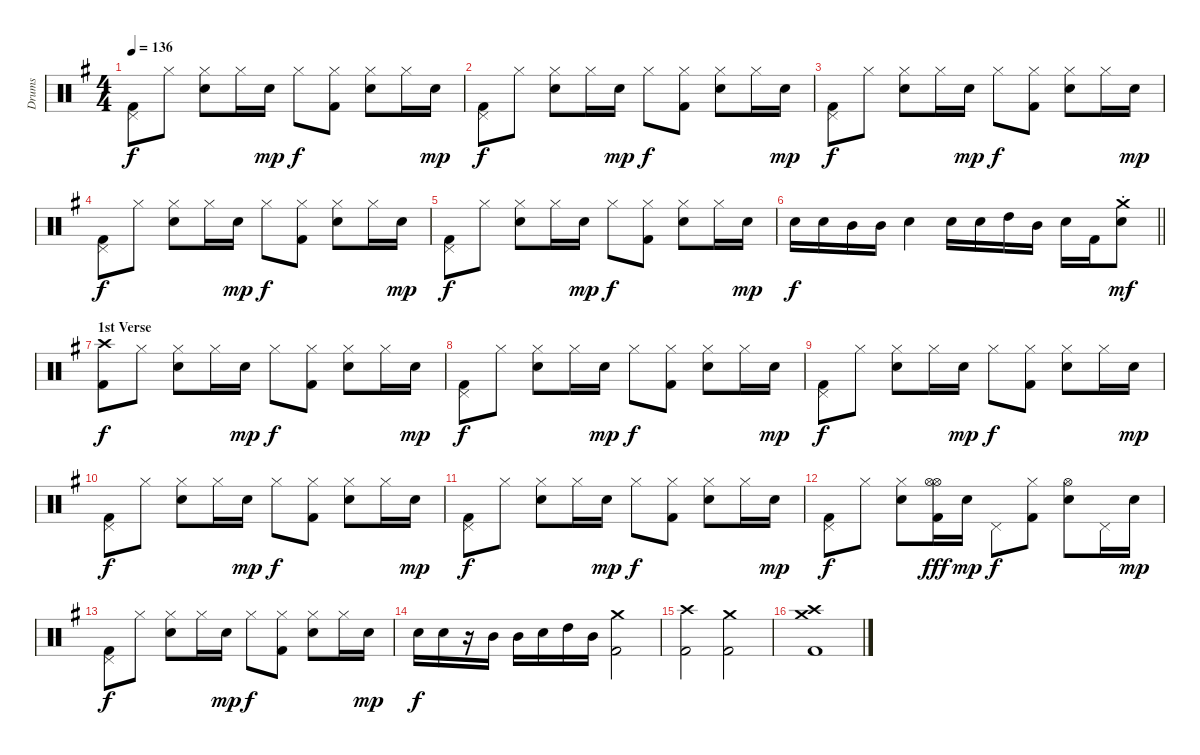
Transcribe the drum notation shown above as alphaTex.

\track ("Drums" "Drums") {instrument percussion}
\staff {score}
\articulation defaults
\ts (4 4)
\tempo 136
\clef neutral
\ks g
("Kick (hit) 2" "Pedal Hi-Hat (hit)").8{dy f} "Hi-Hat (closed)".8 ("Snare (hit) 2" "Hi-Hat (closed)").8 "Hi-Hat (closed)".16 "Snare (hit) 2".16{dy mp} "Hi-Hat (closed)".8{dy f} ("Kick (hit) 2" "Hi-Hat (closed)").8 ("Snare (hit) 2" "Hi-Hat (closed)").8 "Hi-Hat (closed)".16 "Snare (hit) 2".16{dy mp} |
("Kick (hit) 2" "Pedal Hi-Hat (hit)").8{dy f} "Hi-Hat (closed)".8 ("Snare (hit) 2" "Hi-Hat (closed)").8 "Hi-Hat (closed)".16 "Snare (hit) 2".16{dy mp} "Hi-Hat (closed)".8{dy f} ("Kick (hit) 2" "Hi-Hat (closed)").8 ("Snare (hit) 2" "Hi-Hat (closed)").8 "Hi-Hat (closed)".16 "Snare (hit) 2".16{dy mp} |
("Kick (hit) 2" "Pedal Hi-Hat (hit)").8{dy f} "Hi-Hat (closed)".8 ("Snare (hit) 2" "Hi-Hat (closed)").8 "Hi-Hat (closed)".16 "Snare (hit) 2".16{dy mp} "Hi-Hat (closed)".8{dy f} ("Kick (hit) 2" "Hi-Hat (closed)").8 ("Snare (hit) 2" "Hi-Hat (closed)").8 "Hi-Hat (closed)".16 "Snare (hit) 2".16{dy mp} |
("Kick (hit) 2" "Pedal Hi-Hat (hit)").8{dy f} "Hi-Hat (closed)".8 ("Snare (hit) 2" "Hi-Hat (closed)").8 "Hi-Hat (closed)".16 "Snare (hit) 2".16{dy mp} "Hi-Hat (closed)".8{dy f} ("Kick (hit) 2" "Hi-Hat (closed)").8 ("Snare (hit) 2" "Hi-Hat (closed)").8 "Hi-Hat (closed)".16 "Snare (hit) 2".16{dy mp} |
("Kick (hit) 2" "Pedal Hi-Hat (hit)").8{dy f} "Hi-Hat (closed)".8 ("Snare (hit) 2" "Hi-Hat (closed)").8 "Hi-Hat (closed)".16 "Snare (hit) 2".16{dy mp} "Hi-Hat (closed)".8{dy f} ("Kick (hit) 2" "Hi-Hat (closed)").8 ("Snare (hit) 2" "Hi-Hat (closed)").8 "Hi-Hat (closed)".16 "Snare (hit) 2".16{dy mp} |
\barLineRight lightlight "Snare (hit) 2".16{dy f} "Snare (hit) 2".16 "Mid Tom (hit)".16 "Mid Tom (hit)".16 "Snare (hit) 2".4 "Snare (hit) 2".16 "Snare (hit) 2".16 "High Tom (hit)".16 "Mid Tom (hit)".16 "Snare (hit) 2".16 "Kick (hit) 2".16
("Snare (hit) 2" "Crash medium (hit)"{st}).8{dy mf} |
\section ("" "1st Verse")
("Kick (hit) 2" "Crash high (hit)").8{dy f} "Hi-Hat (closed)".8 ("Snare (hit) 2" "Hi-Hat (closed)").8 "Hi-Hat (closed)".16 "Snare (hit) 2".16{dy mp} "Hi-Hat (closed)".8{dy f} ("Kick (hit) 2" "Hi-Hat (closed)").8 ("Snare (hit) 2" "Hi-Hat (closed)").8 "Hi-Hat (closed)".16 "Snare (hit) 2".16{dy mp} |
("Kick (hit) 2" "Pedal Hi-Hat (hit)").8{dy f} "Hi-Hat (closed)".8 ("Snare (hit) 2" "Hi-Hat (closed)").8 "Hi-Hat (closed)".16 "Snare (hit) 2".16{dy mp} "Hi-Hat (closed)".8{dy f} ("Kick (hit) 2" "Hi-Hat (closed)").8 ("Snare (hit) 2" "Hi-Hat (closed)").8 "Hi-Hat (closed)".16 "Snare (hit) 2".16{dy mp} |
("Kick (hit) 2" "Pedal Hi-Hat (hit)").8{dy f} "Hi-Hat (closed)".8 ("Snare (hit) 2" "Hi-Hat (closed)").8 "Hi-Hat (closed)".16 "Snare (hit) 2".16{dy mp} "Hi-Hat (closed)".8{dy f} ("Kick (hit) 2" "Hi-Hat (closed)").8 ("Snare (hit) 2" "Hi-Hat (closed)").8 "Hi-Hat (closed)".16 "Snare (hit) 2".16{dy mp} |
("Kick (hit) 2" "Pedal Hi-Hat (hit)").8{dy f} "Hi-Hat (closed)".8 ("Snare (hit) 2" "Hi-Hat (closed)").8 "Hi-Hat (closed)".16 "Snare (hit) 2".16{dy mp} "Hi-Hat (closed)".8{dy f} ("Kick (hit) 2" "Hi-Hat (closed)").8 ("Snare (hit) 2" "Hi-Hat (closed)").8 "Hi-Hat (closed)".16 "Snare (hit) 2".16{dy mp} |
("Kick (hit) 2" "Pedal Hi-Hat (hit)").8{dy f} "Hi-Hat (closed)".8 ("Snare (hit) 2" "Hi-Hat (closed)").8 "Hi-Hat (closed)".16 "Snare (hit) 2".16{dy mp} "Hi-Hat (closed)".8{dy f} ("Kick (hit) 2" "Hi-Hat (closed)").8 ("Snare (hit) 2" "Hi-Hat (closed)").8 "Hi-Hat (closed)".16 "Snare (hit) 2".16{dy mp} |
("Kick (hit) 2" "Pedal Hi-Hat (hit)").8{dy f} "Hi-Hat (closed)".8 ("Snare (hit) 2" "Hi-Hat (closed)").8 ("Kick (hit) 2" "Hi-Hat (open)" "Hi-Hat (open)").16{dy fff} "Snare (hit) 2".16{dy mp} "Pedal Hi-Hat (hit)".8{dy f} ("Kick (hit) 2" "Hi-Hat (closed)").8 ("Snare (hit) 2" "Hi-Hat (open)").8 "Pedal Hi-Hat (hit)".16 "Snare (hit) 2".16{dy mp} |
("Kick (hit) 2" "Pedal Hi-Hat (hit)").8{dy f} "Hi-Hat (closed)".8 ("Snare (hit) 2" "Hi-Hat (closed)").8 "Hi-Hat (closed)".16 "Snare (hit) 2".16{dy mp} "Hi-Hat (closed)".8{dy f} ("Kick (hit) 2" "Hi-Hat (closed)").8 ("Snare (hit) 2" "Hi-Hat (closed)").8 "Hi-Hat (closed)".16 "Snare (hit) 2".16{dy mp} |
"Snare (hit) 2".16{dy f} "Snare (hit) 2".16 r.16 "Mid Tom (hit)".16 "Mid Tom (hit)".16 "Snare (hit) 2".16 "High Tom (hit)".16 "Mid Tom (hit)".16 ("Kick (hit) 2" "Crash medium (hit)").2 |
("Kick (hit) 2" "Crash high (hit)").2 ("Kick (hit) 2" "Crash medium (hit)").2 |
("Kick (hit) 2" "Crash medium (hit)" "Crash high (hit)").1
